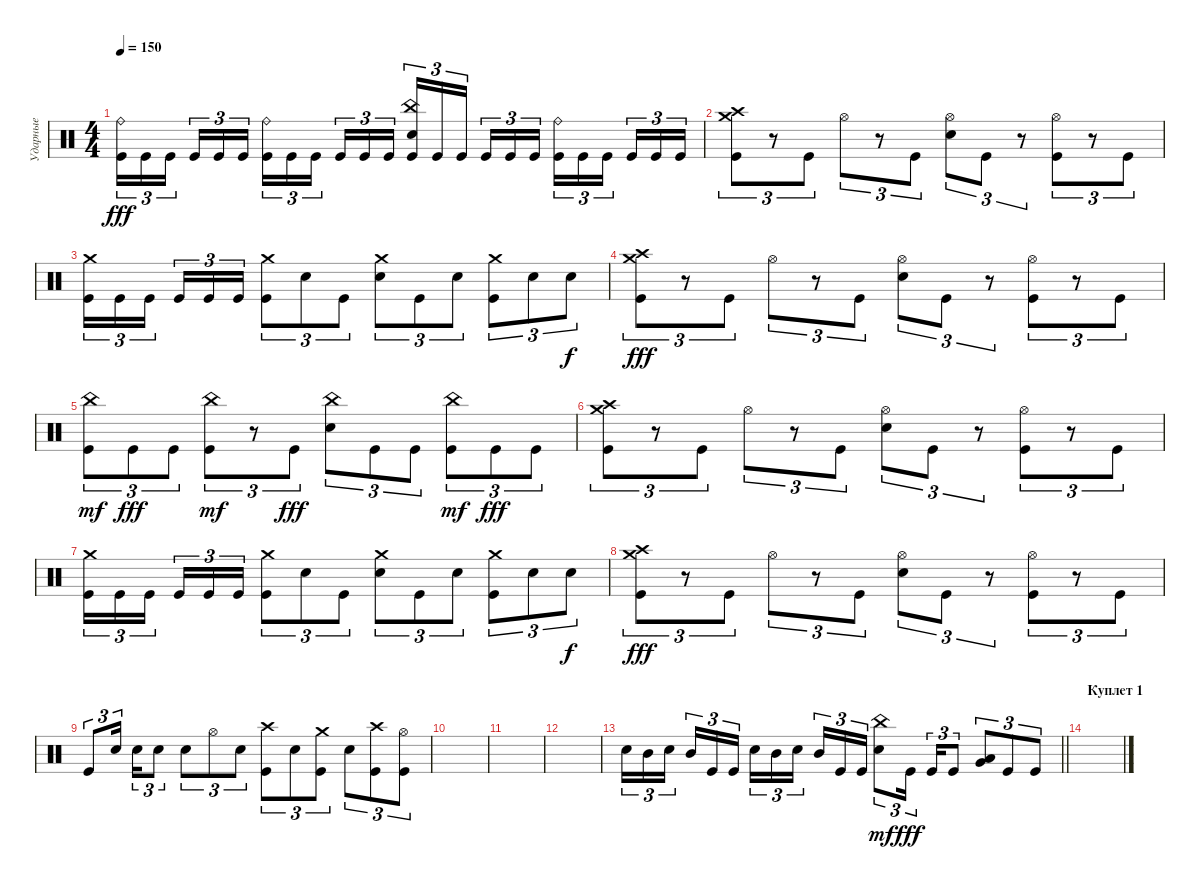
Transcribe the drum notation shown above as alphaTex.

\track ("Ударные" "Ударные") {instrument percussion}
\staff {score}
\articulation defaults
\ts (4 4)
\tempo 150
\clef neutral
\ks c
("Ride (bell)" "Kick (hit)").16{tu (3 2) dy fff} "Kick (hit)".16{tu (3 2)} "Kick (hit)".16{tu (3 2) beam splitsecondary} "Kick (hit)".16{tu (3 2)} "Kick (hit)".16{tu (3 2)} "Kick (hit)".16{tu (3 2)} ("Kick (hit)" "Ride (bell)").16{tu (3 2)} "Kick (hit)".16{tu (3 2)} "Kick (hit)".16{tu (3 2) beam splitsecondary} "Kick (hit)".16{tu (3 2)} "Kick (hit)".16{tu (3 2)} "Kick (hit)".16{tu (3 2)} ("Kick (hit)" "China (hit)" "Electric Snare (hit)").16{tu (3 2)} "Kick (hit)".16{tu (3 2)} "Kick (hit)".16{tu (3 2) beam splitsecondary} "Kick (hit)".16{tu (3 2)} "Kick (hit)".16{tu (3 2)} "Kick (hit)".16{tu (3 2)} ("Kick (hit)" "Ride (bell)").16{tu (3 2)} "Kick (hit)".16{tu (3 2)} "Kick (hit)".16{tu (3 2) beam splitsecondary} "Kick (hit)".16{tu (3 2)} "Kick (hit)".16{tu (3 2)} "Kick (hit)".16{tu (3 2)} |
("Crash high (hit)" "Kick (hit)" "Crash medium (hit)").8{tu (3 2)} r.8{tu (3 2)} "Kick (hit)".8{tu (3 2)} "Hi-Hat (open)".8{tu (3 2)} r.8{tu (3 2)} "Kick (hit)".8{tu (3 2)} ("Electric Snare (hit)" "Hi-Hat (open)").8{tu (3 2)} "Kick (hit)".8{tu (3 2)} r.8{tu (3 2)} ("Kick (hit)" "Hi-Hat (open)").8{tu (3 2)} r.8{tu (3 2)} "Kick (hit)".8{tu (3 2)} |
("Crash medium (hit)" "Kick (hit)").16{tu (3 2)} "Kick (hit)".16{tu (3 2)} "Kick (hit)".16{tu (3 2) beam splitsecondary} "Kick (hit)".16{tu (3 2)} "Kick (hit)".16{tu (3 2)} "Kick (hit)".16{tu (3 2)} ("Kick (hit)" "Crash medium (hit)").8{tu (3 2)} "Electric Snare (hit)".8{tu (3 2)} "Kick (hit)".8{tu (3 2)} ("Electric Snare (hit)" "Crash medium (hit)").8{tu (3 2)} "Kick (hit)".8{tu (3 2)} "Electric Snare (hit)".8{tu (3 2)} ("Crash medium (hit)" "Kick (hit)").8{tu (3 2)} "Electric Snare (hit)".8{tu (3 2)} "Electric Snare (hit)".8{tu (3 2) dy f} |
("Crash high (hit)" "Kick (hit)" "Crash medium (hit)").8{tu (3 2) dy fff} r.8{tu (3 2)} "Kick (hit)".8{tu (3 2)} "Hi-Hat (open)".8{tu (3 2)} r.8{tu (3 2)} "Kick (hit)".8{tu (3 2)} ("Electric Snare (hit)" "Hi-Hat (open)").8{tu (3 2)} "Kick (hit)".8{tu (3 2)} r.8{tu (3 2)} ("Kick (hit)" "Hi-Hat (open)").8{tu (3 2)} r.8{tu (3 2)} "Kick (hit)".8{tu (3 2)} |
("Kick (hit)" "China (hit)").8{tu (3 2) dy mf} "Kick (hit)".8{tu (3 2) dy fff} "Kick (hit)".8{tu (3 2)} ("Kick (hit)" "China (hit)").8{tu (3 2) dy mf} r.8{tu (3 2)} "Kick (hit)".8{tu (3 2) dy fff} ("China (hit)" "Electric Snare (hit)").8{tu (3 2)} "Kick (hit)".8{tu (3 2)} "Kick (hit)".8{tu (3 2)} ("Kick (hit)" "China (hit)").8{tu (3 2) dy mf} "Kick (hit)".8{tu (3 2) dy fff} "Kick (hit)".8{tu (3 2)} |
("Crash high (hit)" "Kick (hit)" "Crash medium (hit)").8{tu (3 2)} r.8{tu (3 2)} "Kick (hit)".8{tu (3 2)} "Hi-Hat (open)".8{tu (3 2)} r.8{tu (3 2)} "Kick (hit)".8{tu (3 2)} ("Electric Snare (hit)" "Hi-Hat (open)").8{tu (3 2)} "Kick (hit)".8{tu (3 2)} r.8{tu (3 2)} ("Kick (hit)" "Hi-Hat (open)").8{tu (3 2)} r.8{tu (3 2)} "Kick (hit)".8{tu (3 2)} |
("Crash medium (hit)" "Kick (hit)").16{tu (3 2)} "Kick (hit)".16{tu (3 2)} "Kick (hit)".16{tu (3 2) beam splitsecondary} "Kick (hit)".16{tu (3 2)} "Kick (hit)".16{tu (3 2)} "Kick (hit)".16{tu (3 2)} ("Kick (hit)" "Crash medium (hit)").8{tu (3 2)} "Electric Snare (hit)".8{tu (3 2)} "Kick (hit)".8{tu (3 2)} ("Electric Snare (hit)" "Crash medium (hit)").8{tu (3 2)} "Kick (hit)".8{tu (3 2)} "Electric Snare (hit)".8{tu (3 2)} ("Crash medium (hit)" "Kick (hit)").8{tu (3 2)} "Electric Snare (hit)".8{tu (3 2)} "Electric Snare (hit)".8{tu (3 2) dy f} |
("Crash high (hit)" "Kick (hit)" "Crash medium (hit)").8{tu (3 2) dy fff} r.8{tu (3 2)} "Kick (hit)".8{tu (3 2)} "Hi-Hat (open)".8{tu (3 2)} r.8{tu (3 2)} "Kick (hit)".8{tu (3 2)} ("Electric Snare (hit)" "Hi-Hat (open)").8{tu (3 2)} "Kick (hit)".8{tu (3 2)} r.8{tu (3 2)} ("Kick (hit)" "Hi-Hat (open)").8{tu (3 2)} r.8{tu (3 2)} "Kick (hit)".8{tu (3 2)} |
"Kick (hit)".8{tu (3 2)} "Electric Snare (hit)".16{tu (3 2) beam splitsecondary} "Electric Snare (hit)".16{tu (3 2)} "Electric Snare (hit)".8{tu (3 2)} "Electric Snare (hit)".8{tu (3 2)} "Hi-Hat (open)".8{tu (3 2)} "Electric Snare (hit)".8{tu (3 2)} ("Crash high (hit)" "Kick (hit)").8{tu (3 2)} "Electric Snare (hit)".8{tu (3 2)} ("Crash medium (hit)" "Kick (hit)").8{tu (3 2)} "Electric Snare (hit)".8{tu (3 2)} ("Crash high (hit)" "Kick (hit)").8{tu (3 2)} ("Hi-Hat (open)" "Kick (hit)").8{tu (3 2)} |
|
|
|
\barLineRight lightlight "Electric Snare (hit)".16{tu (3 2)} "Mid Tom (hit)".16{tu (3 2)} "Electric Snare (hit)".16{tu (3 2) beam splitsecondary} "Mid Tom (hit)".16{tu (3 2)} "Kick (hit)".16{tu (3 2)} "Kick (hit)".16{tu (3 2)} "Electric Snare (hit)".16{tu (3 2)} "Mid Tom (hit)".16{tu (3 2)} "Electric Snare (hit)".16{tu (3 2) beam splitsecondary} "Mid Tom (hit)".16{tu (3 2)} "Kick (hit)".16{tu (3 2)} "Kick (hit)".16{tu (3 2)}
("Electric Snare (hit)" "China (hit)").8{tu (3 2) dy mf} "Kick (hit)".16{tu (3 2) dy fff beam splitsecondary} "Kick (hit)".16{tu (3 2)} "Kick (hit)".8{tu (3 2)} ("Low Tom (hit)" "Very Low Tom (hit)").8{tu (3 2)} "Kick (hit)".8{tu (3 2)} "Kick (hit)".8{tu (3 2)} |
\section ("" "Куплет 1")
